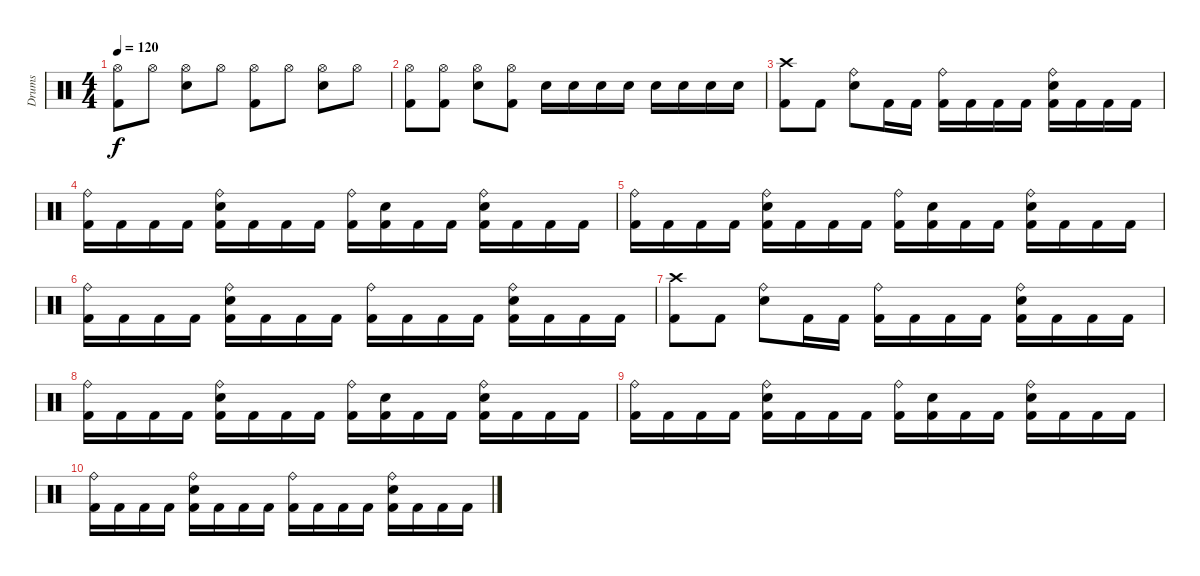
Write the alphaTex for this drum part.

\track ("Drums" "Drums") {instrument percussion}
\staff {score}
\articulation defaults
\ts (4 4)
\tempo 120
\clef neutral
\ks c
("Hi-Hat (open)" "Kick (hit) 2").8{dy f} "Hi-Hat (open)".8 ("Hi-Hat (open)" "Snare (hit) 2").8 "Hi-Hat (open)".8 ("Hi-Hat (open)" "Kick (hit) 2").8 "Hi-Hat (open)".8 ("Hi-Hat (open)" "Snare (hit) 2").8 "Hi-Hat (open)".8 |
("Hi-Hat (open)" "Kick (hit) 2").8 ("Hi-Hat (open)" "Kick (hit) 2").8 ("Hi-Hat (open)" "Snare (hit) 2").8 ("Hi-Hat (open)" "Kick (hit) 2").8 "Snare (hit) 2".16 "Snare (hit) 2".16 "Snare (hit) 2".16 "Snare (hit) 2".16 "Snare (hit) 2".16 "Snare (hit) 2".16 "Snare (hit) 2".16 "Snare (hit) 2".16 |
("Crash high (hit)" "Kick (hit) 2").8 "Kick (hit) 2".8 ("Ride (bell)" "Snare (hit) 2").8 "Kick (hit) 2".16 "Kick (hit) 2".16 ("Ride (bell)" "Kick (hit) 2").16 "Kick (hit) 2".16 "Kick (hit) 2".16 "Kick (hit) 2".16 ("Ride (bell)" "Snare (hit) 2" "Kick (hit) 2").16 "Kick (hit) 2".16 "Kick (hit) 2".16 "Kick (hit) 2".16 |
("Ride (bell)" "Kick (hit) 2").16 "Kick (hit) 2".16 "Kick (hit) 2".16 "Kick (hit) 2".16 ("Ride (bell)" "Snare (hit) 2" "Kick (hit) 2").16 "Kick (hit) 2".16 "Kick (hit) 2".16 "Kick (hit) 2".16 ("Ride (bell)" "Kick (hit) 2").16 ("Snare (hit) 2" "Kick (hit) 2").16 "Kick (hit) 2".16 "Kick (hit) 2".16 ("Ride (bell)" "Snare (hit) 2" "Kick (hit) 2").16 "Kick (hit) 2".16 "Kick (hit) 2".16 "Kick (hit) 2".16 |
("Ride (bell)" "Kick (hit) 2").16 "Kick (hit) 2".16 "Kick (hit) 2".16 "Kick (hit) 2".16 ("Ride (bell)" "Snare (hit) 2" "Kick (hit) 2").16 "Kick (hit) 2".16 "Kick (hit) 2".16 "Kick (hit) 2".16 ("Ride (bell)" "Kick (hit) 2").16 ("Snare (hit) 2" "Kick (hit) 2").16 "Kick (hit) 2".16 "Kick (hit) 2".16 ("Ride (bell)" "Snare (hit) 2" "Kick (hit) 2").16 "Kick (hit) 2".16 "Kick (hit) 2".16 "Kick (hit) 2".16 |
("Ride (bell)" "Kick (hit) 2").16 "Kick (hit) 2".16 "Kick (hit) 2".16 "Kick (hit) 2".16 ("Ride (bell)" "Snare (hit) 2" "Kick (hit) 2").16 "Kick (hit) 2".16 "Kick (hit) 2".16 "Kick (hit) 2".16 ("Ride (bell)" "Kick (hit) 2").16 "Kick (hit) 2".16 "Kick (hit) 2".16 "Kick (hit) 2".16 ("Ride (bell)" "Snare (hit) 2" "Kick (hit) 2").16 "Kick (hit) 2".16 "Kick (hit) 2".16 "Kick (hit) 2".16 |
("Crash high (hit)" "Kick (hit) 2").8 "Kick (hit) 2".8 ("Ride (bell)" "Snare (hit) 2").8 "Kick (hit) 2".16 "Kick (hit) 2".16 ("Ride (bell)" "Kick (hit) 2").16 "Kick (hit) 2".16 "Kick (hit) 2".16 "Kick (hit) 2".16 ("Ride (bell)" "Snare (hit) 2" "Kick (hit) 2").16 "Kick (hit) 2".16 "Kick (hit) 2".16 "Kick (hit) 2".16 |
("Ride (bell)" "Kick (hit) 2").16 "Kick (hit) 2".16 "Kick (hit) 2".16 "Kick (hit) 2".16 ("Ride (bell)" "Snare (hit) 2" "Kick (hit) 2").16 "Kick (hit) 2".16 "Kick (hit) 2".16 "Kick (hit) 2".16 ("Ride (bell)" "Kick (hit) 2").16 ("Snare (hit) 2" "Kick (hit) 2").16 "Kick (hit) 2".16 "Kick (hit) 2".16 ("Ride (bell)" "Snare (hit) 2" "Kick (hit) 2").16 "Kick (hit) 2".16 "Kick (hit) 2".16 "Kick (hit) 2".16 |
("Ride (bell)" "Kick (hit) 2").16 "Kick (hit) 2".16 "Kick (hit) 2".16 "Kick (hit) 2".16 ("Ride (bell)" "Snare (hit) 2" "Kick (hit) 2").16 "Kick (hit) 2".16 "Kick (hit) 2".16 "Kick (hit) 2".16 ("Ride (bell)" "Kick (hit) 2").16 ("Snare (hit) 2" "Kick (hit) 2").16 "Kick (hit) 2".16 "Kick (hit) 2".16 ("Ride (bell)" "Snare (hit) 2" "Kick (hit) 2").16 "Kick (hit) 2".16 "Kick (hit) 2".16 "Kick (hit) 2".16 |
("Ride (bell)" "Kick (hit) 2").16 "Kick (hit) 2".16 "Kick (hit) 2".16 "Kick (hit) 2".16 ("Ride (bell)" "Snare (hit) 2" "Kick (hit) 2").16 "Kick (hit) 2".16 "Kick (hit) 2".16 "Kick (hit) 2".16 ("Ride (bell)" "Kick (hit) 2").16 "Kick (hit) 2".16 "Kick (hit) 2".16 "Kick (hit) 2".16 ("Ride (bell)" "Snare (hit) 2" "Kick (hit) 2").16 "Kick (hit) 2".16 "Kick (hit) 2".16 "Kick (hit) 2".16
